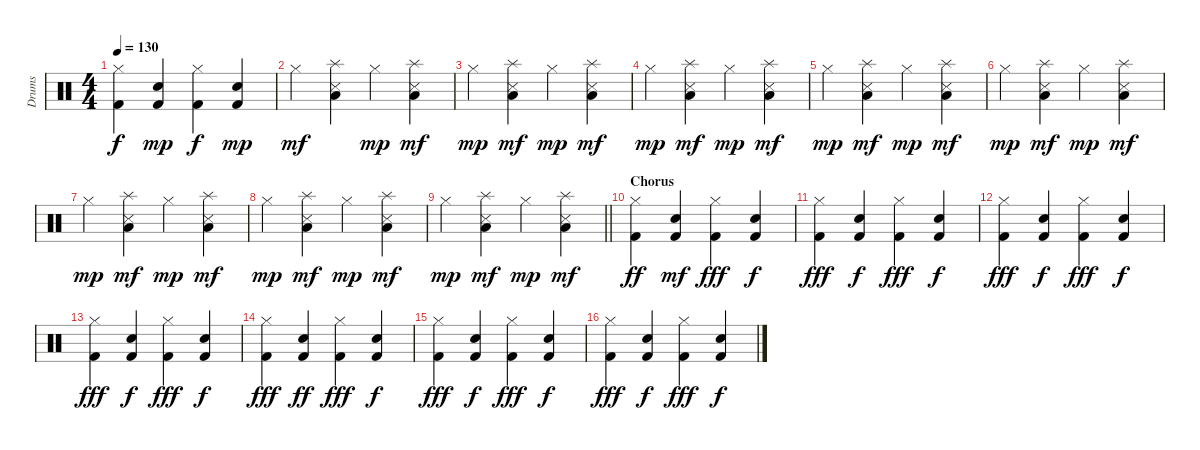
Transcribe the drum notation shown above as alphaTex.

\track ("Drums" "Drums") {instrument percussion}
\staff {score}
\articulation defaults
\ts (4 4)
\tempo 130
\clef neutral
\ks c
("Kick (hit) 2" "Hi-Hat (closed)").4{dy f} ("Kick (hit) 2" "Snare (hit) 2").4{dy mp} ("Kick (hit) 2" "Hi-Hat (closed)").4{dy f} ("Kick (hit) 2" "Snare (hit) 2").4{dy mp} |
"Hi-Hat (closed)".4{dy mf} ("Low Tom (hit)" "Snare (side stick) 3" "Splash (hit)").4 "Hi-Hat (closed)".4{dy mp} ("Low Tom (hit)" "Snare (side stick) 3" "Splash (hit)").4{dy mf} |
"Hi-Hat (closed)".4{dy mp} ("Low Tom (hit)" "Snare (side stick) 3" "Splash (hit)").4{dy mf} "Hi-Hat (closed)".4{dy mp} ("Low Tom (hit)" "Snare (side stick) 3" "Splash (hit)").4{dy mf} |
"Hi-Hat (closed)".4{dy mp} ("Low Tom (hit)" "Snare (side stick) 3" "Splash (hit)").4{dy mf} "Hi-Hat (closed)".4{dy mp} ("Low Tom (hit)" "Snare (side stick) 3" "Splash (hit)").4{dy mf} |
"Hi-Hat (closed)".4{dy mp} ("Low Tom (hit)" "Snare (side stick) 3" "Splash (hit)").4{dy mf} "Hi-Hat (closed)".4{dy mp} ("Low Tom (hit)" "Snare (side stick) 3" "Splash (hit)").4{dy mf} |
"Hi-Hat (closed)".4{dy mp} ("Low Tom (hit)" "Snare (side stick) 3" "Splash (hit)").4{dy mf} "Hi-Hat (closed)".4{dy mp} ("Low Tom (hit)" "Snare (side stick) 3" "Splash (hit)").4{dy mf} |
"Hi-Hat (closed)".4{dy mp} ("Low Tom (hit)" "Snare (side stick) 3" "Splash (hit)").4{dy mf} "Hi-Hat (closed)".4{dy mp} ("Low Tom (hit)" "Snare (side stick) 3" "Splash (hit)").4{dy mf} |
"Hi-Hat (closed)".4{dy mp} ("Low Tom (hit)" "Snare (side stick) 3" "Splash (hit)").4{dy mf} "Hi-Hat (closed)".4{dy mp} ("Low Tom (hit)" "Snare (side stick) 3" "Splash (hit)").4{dy mf} |
\barLineRight lightlight "Hi-Hat (closed)".4{dy mp}
("Low Tom (hit)" "Snare (side stick) 3" "Splash (hit)").4{dy mf} "Hi-Hat (closed)".4{dy mp} ("Low Tom (hit)" "Snare (side stick) 3" "Splash (hit)").4{dy mf} |
\section ("" "Chorus")
("Kick (hit) 2" "Hi-Hat (closed)").4{dy ff} ("Kick (hit) 2" "Snare (hit) 2").4{dy mf} ("Kick (hit) 2" "Hi-Hat (closed)").4{dy fff} ("Kick (hit) 2" "Snare (hit) 2").4{dy f} |
("Kick (hit) 2" "Hi-Hat (closed)").4{dy fff} ("Kick (hit) 2" "Snare (hit) 2").4{dy f} ("Kick (hit) 2" "Hi-Hat (closed)").4{dy fff} ("Kick (hit) 2" "Snare (hit) 2").4{dy f} |
("Kick (hit) 2" "Hi-Hat (closed)").4{dy fff} ("Kick (hit) 2" "Snare (hit) 2").4{dy f} ("Kick (hit) 2" "Hi-Hat (closed)").4{dy fff} ("Kick (hit) 2" "Snare (hit) 2").4{dy f} |
("Kick (hit) 2" "Hi-Hat (closed)").4{dy fff} ("Kick (hit) 2" "Snare (hit) 2").4{dy f} ("Kick (hit) 2" "Hi-Hat (closed)").4{dy fff} ("Kick (hit) 2" "Snare (hit) 2").4{dy f} |
("Kick (hit) 2" "Hi-Hat (closed)").4{dy fff} ("Kick (hit) 2" "Snare (hit) 2").4{dy ff} ("Kick (hit) 2" "Hi-Hat (closed)").4{dy fff} ("Kick (hit) 2" "Snare (hit) 2").4{dy f} |
("Kick (hit) 2" "Hi-Hat (closed)").4{dy fff} ("Kick (hit) 2" "Snare (hit) 2").4{dy f} ("Kick (hit) 2" "Hi-Hat (closed)").4{dy fff} ("Kick (hit) 2" "Snare (hit) 2").4{dy f} |
("Kick (hit) 2" "Hi-Hat (closed)").4{dy fff} ("Kick (hit) 2" "Snare (hit) 2").4{dy f} ("Kick (hit) 2" "Hi-Hat (closed)").4{dy fff} ("Kick (hit) 2" "Snare (hit) 2").4{dy f}
